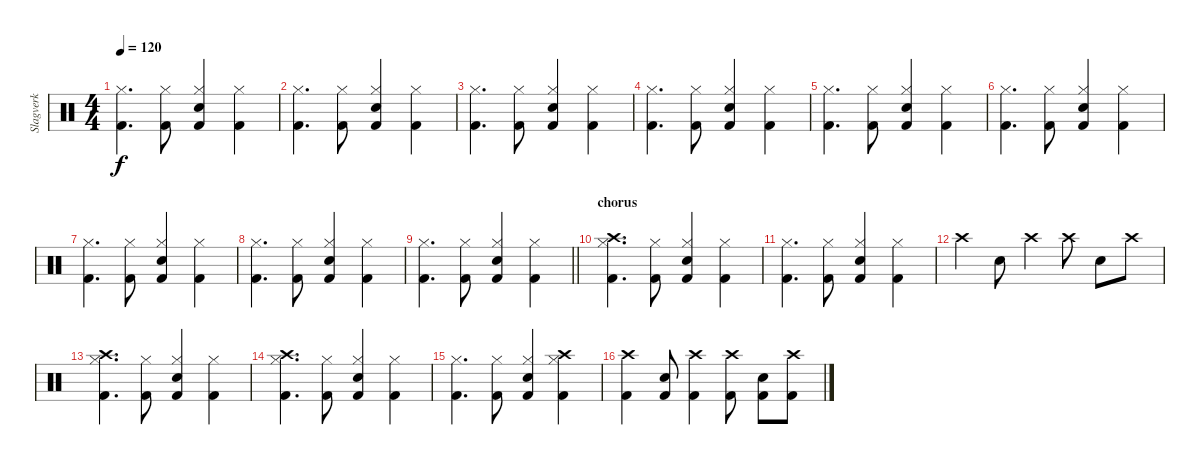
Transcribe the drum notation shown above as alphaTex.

\track ("Slagverk" "Slagverk") {instrument percussion}
\staff {score}
\articulation defaults
\ts (4 4)
\tempo 120
\clef neutral
\ks c
("Kick (hit) 2" "Hi-Hat (closed)").4{d dy f} ("Kick (hit) 2" "Hi-Hat (closed)").8 ("Kick (hit) 2" "Hi-Hat (closed)" "Snare (hit) 2").4 ("Kick (hit) 2" "Hi-Hat (closed)").4 |
("Kick (hit) 2" "Hi-Hat (closed)").4{d} ("Kick (hit) 2" "Hi-Hat (closed)").8 ("Kick (hit) 2" "Hi-Hat (closed)" "Snare (hit) 2").4 ("Kick (hit) 2" "Hi-Hat (closed)").4 |
("Kick (hit) 2" "Hi-Hat (closed)").4{d} ("Kick (hit) 2" "Hi-Hat (closed)").8 ("Kick (hit) 2" "Hi-Hat (closed)" "Snare (hit) 2").4 ("Kick (hit) 2" "Hi-Hat (closed)").4 |
("Kick (hit) 2" "Hi-Hat (closed)").4{d} ("Kick (hit) 2" "Hi-Hat (closed)").8 ("Kick (hit) 2" "Hi-Hat (closed)" "Snare (hit) 2").4 ("Kick (hit) 2" "Hi-Hat (closed)").4 |
("Kick (hit) 2" "Hi-Hat (closed)").4{d} ("Kick (hit) 2" "Hi-Hat (closed)").8 ("Kick (hit) 2" "Hi-Hat (closed)" "Snare (hit) 2").4 ("Kick (hit) 2" "Hi-Hat (closed)").4 |
("Kick (hit) 2" "Hi-Hat (closed)").4{d} ("Kick (hit) 2" "Hi-Hat (closed)").8 ("Kick (hit) 2" "Hi-Hat (closed)" "Snare (hit) 2").4 ("Kick (hit) 2" "Hi-Hat (closed)").4 |
("Kick (hit) 2" "Hi-Hat (closed)").4{d} ("Kick (hit) 2" "Hi-Hat (closed)").8 ("Kick (hit) 2" "Hi-Hat (closed)" "Snare (hit) 2").4 ("Kick (hit) 2" "Hi-Hat (closed)").4 |
("Kick (hit) 2" "Hi-Hat (closed)").4{d} ("Kick (hit) 2" "Hi-Hat (closed)").8 ("Kick (hit) 2" "Hi-Hat (closed)" "Snare (hit) 2").4 ("Kick (hit) 2" "Hi-Hat (closed)").4 |
\barLineRight lightlight
("Kick (hit) 2" "Hi-Hat (closed)").4{d} ("Kick (hit) 2" "Hi-Hat (closed)").8 ("Kick (hit) 2" "Hi-Hat (closed)" "Snare (hit) 2").4 ("Kick (hit) 2" "Hi-Hat (closed)").4 |
\section ("" "chorus")
("Kick (hit) 2" "Hi-Hat (closed)" "Crash high (hit)").4{d} ("Kick (hit) 2" "Hi-Hat (closed)").8 ("Kick (hit) 2" "Hi-Hat (closed)" "Snare (hit) 2").4 ("Kick (hit) 2" "Hi-Hat (closed)").4 |
("Kick (hit) 2" "Hi-Hat (closed)").4{d} ("Kick (hit) 2" "Hi-Hat (closed)").8 ("Kick (hit) 2" "Hi-Hat (closed)" "Snare (hit) 2").4 ("Kick (hit) 2" "Hi-Hat (closed)").4 |
"Crash high (hit)".4 "Snare (hit) 2".8 "Crash high (hit)".4 "Crash high (hit)".8 "Snare (hit) 2".8 "Crash high (hit)".8 |
("Kick (hit) 2" "Hi-Hat (closed)" "Crash high (hit)").4{d} ("Kick (hit) 2" "Hi-Hat (closed)").8 ("Kick (hit) 2" "Hi-Hat (closed)" "Snare (hit) 2").4 ("Kick (hit) 2" "Hi-Hat (closed)").4 |
("Kick (hit) 2" "Hi-Hat (closed)" "Crash high (hit)").4{d} ("Kick (hit) 2" "Hi-Hat (closed)").8 ("Kick (hit) 2" "Hi-Hat (closed)" "Snare (hit) 2").4 ("Kick (hit) 2" "Hi-Hat (closed)").4 |
("Kick (hit) 2" "Hi-Hat (closed)").4{d} ("Kick (hit) 2" "Hi-Hat (closed)").8 ("Kick (hit) 2" "Hi-Hat (closed)" "Snare (hit) 2").4 ("Kick (hit) 2" "Hi-Hat (closed)" "Crash high (hit)").4 |
("Crash high (hit)" "Kick (hit) 2").4 ("Snare (hit) 2" "Kick (hit) 2").8 ("Crash high (hit)" "Kick (hit) 2").4 ("Crash high (hit)" "Kick (hit) 2").8 ("Snare (hit) 2" "Kick (hit) 2").8 ("Crash high (hit)" "Kick (hit) 2").8
